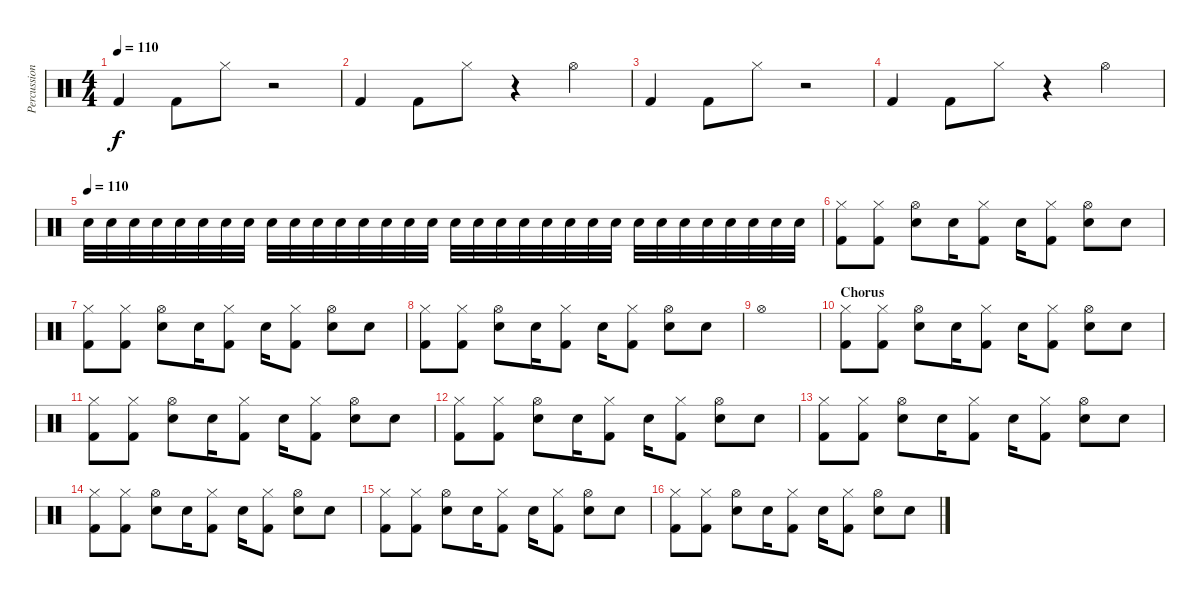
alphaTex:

\track ("Percussion" "Percussion") {instrument percussion}
\staff {score}
\articulation defaults
\ts (4 4)
\tempo 110
\clef neutral
\ks c "Kick (hit) 2".4{dy f} "Kick (hit) 2".8 "Hi-Hat (closed)".8
r.2 |
"Kick (hit) 2".4 "Kick (hit) 2".8 "Hi-Hat (closed)".8 r.4 "Hi-Hat (open)".4 |
"Kick (hit) 2".4 "Kick (hit) 2".8 "Hi-Hat (closed)".8 r.2 |
"Kick (hit) 2".4 "Kick (hit) 2".8 "Hi-Hat (closed)".8 r.4 "Hi-Hat (open)".4 |
\tempo (110)
"Electric Snare (hit)".32{volume 0} "Electric Snare (hit)".32{volume 13} "Electric Snare (hit)".32 "Electric Snare (hit)".32 "Electric Snare (hit)".32 "Electric Snare (hit)".32 "Electric Snare (hit)".32 "Electric Snare (hit)".32 "Electric Snare (hit)".32 "Electric Snare (hit)".32 "Electric Snare (hit)".32 "Electric Snare (hit)".32 "Electric Snare (hit)".32 "Electric Snare (hit)".32 "Electric Snare (hit)".32 "Electric Snare (hit)".32 "Electric Snare (hit)".32 "Electric Snare (hit)".32 "Electric Snare (hit)".32 "Electric Snare (hit)".32 "Electric Snare (hit)".32 "Electric Snare (hit)".32 "Electric Snare (hit)".32 "Electric Snare (hit)".32 "Electric Snare (hit)".32 "Electric Snare (hit)".32 "Electric Snare (hit)".32 "Electric Snare (hit)".32 "Electric Snare (hit)".32 "Electric Snare (hit)".32 "Electric Snare (hit)".32 "Electric Snare (hit)".32 |
("Hi-Hat (closed)" "Kick (hit) 2").8 ("Hi-Hat (closed)" "Kick (hit) 2").8 ("Hi-Hat (open)" "Electric Snare (hit)").8 "Electric Snare (hit)".16 ("Hi-Hat (closed)" "Kick (hit) 2").8 "Electric Snare (hit)".16 ("Hi-Hat (closed)" "Kick (hit) 2").8 ("Hi-Hat (open)" "Electric Snare (hit)").8 "Electric Snare (hit)".8 |
("Hi-Hat (closed)" "Kick (hit) 2").8 ("Hi-Hat (closed)" "Kick (hit) 2").8 ("Hi-Hat (open)" "Electric Snare (hit)").8 "Electric Snare (hit)".16 ("Hi-Hat (closed)" "Kick (hit) 2").8 "Electric Snare (hit)".16 ("Hi-Hat (closed)" "Kick (hit) 2").8 ("Hi-Hat (open)" "Electric Snare (hit)").8 "Electric Snare (hit)".8 |
("Hi-Hat (closed)" "Kick (hit) 2").8 ("Hi-Hat (closed)" "Kick (hit) 2").8 ("Hi-Hat (open)" "Electric Snare (hit)").8 "Electric Snare (hit)".16 ("Hi-Hat (closed)" "Kick (hit) 2").8 "Electric Snare (hit)".16 ("Hi-Hat (closed)" "Kick (hit) 2").8 ("Hi-Hat (open)" "Electric Snare (hit)").8 "Electric Snare (hit)".8 |
"Hi-Hat (open)".1 |
\section ("" "Chorus")
("Hi-Hat (closed)" "Kick (hit) 2").8 ("Hi-Hat (closed)" "Kick (hit) 2").8 ("Hi-Hat (open)" "Electric Snare (hit)").8 "Electric Snare (hit)".16 ("Hi-Hat (closed)" "Kick (hit) 2").8 "Electric Snare (hit)".16 ("Hi-Hat (closed)" "Kick (hit) 2").8 ("Hi-Hat (open)" "Electric Snare (hit)").8 "Electric Snare (hit)".8 |
("Hi-Hat (closed)" "Kick (hit) 2").8 ("Hi-Hat (closed)" "Kick (hit) 2").8 ("Hi-Hat (open)" "Electric Snare (hit)").8 "Electric Snare (hit)".16 ("Hi-Hat (closed)" "Kick (hit) 2").8 "Electric Snare (hit)".16 ("Hi-Hat (closed)" "Kick (hit) 2").8 ("Hi-Hat (open)" "Electric Snare (hit)").8 "Electric Snare (hit)".8 |
("Hi-Hat (closed)" "Kick (hit) 2").8 ("Hi-Hat (closed)" "Kick (hit) 2").8 ("Hi-Hat (open)" "Electric Snare (hit)").8 "Electric Snare (hit)".16 ("Hi-Hat (closed)" "Kick (hit) 2").8 "Electric Snare (hit)".16 ("Hi-Hat (closed)" "Kick (hit) 2").8 ("Hi-Hat (open)" "Electric Snare (hit)").8 "Electric Snare (hit)".8 |
("Hi-Hat (closed)" "Kick (hit) 2").8 ("Hi-Hat (closed)" "Kick (hit) 2").8 ("Hi-Hat (open)" "Electric Snare (hit)").8 "Electric Snare (hit)".16 ("Hi-Hat (closed)" "Kick (hit) 2").8 "Electric Snare (hit)".16 ("Hi-Hat (closed)" "Kick (hit) 2").8 ("Hi-Hat (open)" "Electric Snare (hit)").8 "Electric Snare (hit)".8 |
("Hi-Hat (closed)" "Kick (hit) 2").8 ("Hi-Hat (closed)" "Kick (hit) 2").8 ("Hi-Hat (open)" "Electric Snare (hit)").8 "Electric Snare (hit)".16 ("Hi-Hat (closed)" "Kick (hit) 2").8 "Electric Snare (hit)".16 ("Hi-Hat (closed)" "Kick (hit) 2").8 ("Hi-Hat (open)" "Electric Snare (hit)").8 "Electric Snare (hit)".8 |
("Hi-Hat (closed)" "Kick (hit) 2").8 ("Hi-Hat (closed)" "Kick (hit) 2").8 ("Hi-Hat (open)" "Electric Snare (hit)").8 "Electric Snare (hit)".16 ("Hi-Hat (closed)" "Kick (hit) 2").8 "Electric Snare (hit)".16 ("Hi-Hat (closed)" "Kick (hit) 2").8 ("Hi-Hat (open)" "Electric Snare (hit)").8 "Electric Snare (hit)".8 |
("Hi-Hat (closed)" "Kick (hit) 2").8 ("Hi-Hat (closed)" "Kick (hit) 2").8 ("Hi-Hat (open)" "Electric Snare (hit)").8 "Electric Snare (hit)".16 ("Hi-Hat (closed)" "Kick (hit) 2").8 "Electric Snare (hit)".16 ("Hi-Hat (closed)" "Kick (hit) 2").8 ("Hi-Hat (open)" "Electric Snare (hit)").8 "Electric Snare (hit)".8
